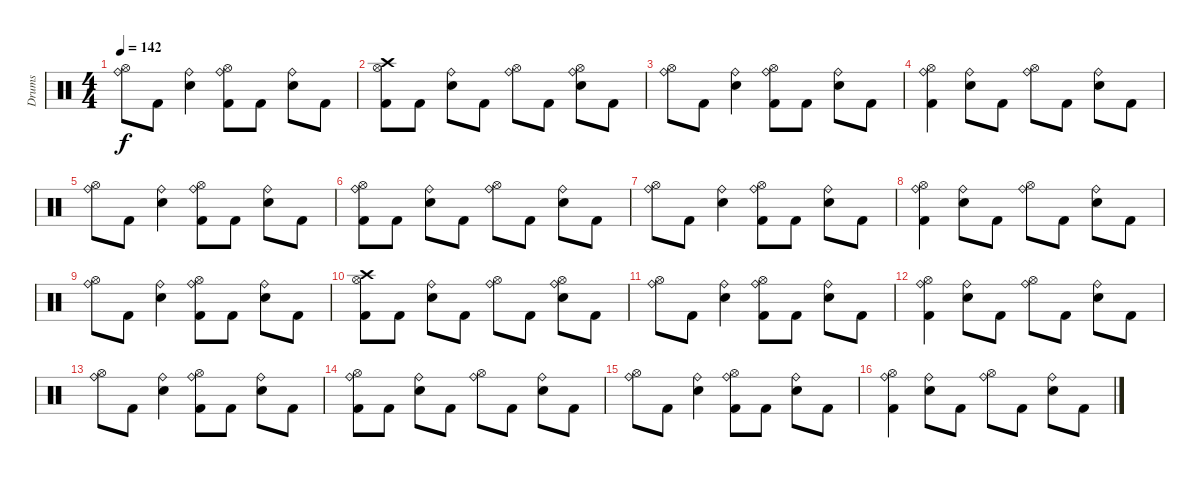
\track ("Drums" "Drums") {instrument percussion}
\staff {score}
\articulation defaults
\ts (4 4)
\tempo 142
\clef neutral
\ks c
("Hi-Hat (open)" "Ride (bell)").8{dy f} "Kick (hit) 2".8 ("Snare (hit) 2" "Ride (bell)").4 ("Kick (hit) 2" "Hi-Hat (open)" "Ride (bell)").8 "Kick (hit) 2".8 ("Snare (hit) 2" "Ride (bell)").8 "Kick (hit) 2".8 |
("Kick (hit) 2" "Hi-Hat (open)" "Crash high (hit)").8 "Kick (hit) 2".8 ("Snare (hit) 2" "Ride (bell)").8 "Kick (hit) 2".8 ("Hi-Hat (open)" "Ride (bell)").8 "Kick (hit) 2".8 ("Snare (hit) 2" "Hi-Hat (open)" "Ride (bell)").8 "Kick (hit) 2".8 |
("Hi-Hat (open)" "Ride (bell)").8 "Kick (hit) 2".8 ("Snare (hit) 2" "Ride (bell)").4 ("Kick (hit) 2" "Hi-Hat (open)" "Ride (bell)").8 "Kick (hit) 2".8 ("Snare (hit) 2" "Ride (bell)").8 "Kick (hit) 2".8 |
("Kick (hit) 2" "Hi-Hat (open)" "Ride (bell)").4 ("Snare (hit) 2" "Ride (bell)").8 "Kick (hit) 2".8 ("Hi-Hat (open)" "Ride (bell)").8 "Kick (hit) 2".8 ("Snare (hit) 2" "Ride (bell)").8 "Kick (hit) 2".8 |
("Hi-Hat (open)" "Ride (bell)").8 "Kick (hit) 2".8 ("Snare (hit) 2" "Ride (bell)").4 ("Kick (hit) 2" "Hi-Hat (open)" "Ride (bell)").8 "Kick (hit) 2".8 ("Snare (hit) 2" "Ride (bell)").8 "Kick (hit) 2".8 |
("Kick (hit) 2" "Hi-Hat (open)" "Ride (bell)").8 "Kick (hit) 2".8 ("Snare (hit) 2" "Ride (bell)").8 "Kick (hit) 2".8 ("Hi-Hat (open)" "Ride (bell)").8 "Kick (hit) 2".8 ("Snare (hit) 2" "Ride (bell)").8 "Kick (hit) 2".8 |
("Hi-Hat (open)" "Ride (bell)").8 "Kick (hit) 2".8 ("Snare (hit) 2" "Ride (bell)").4 ("Kick (hit) 2" "Hi-Hat (open)" "Ride (bell)").8 "Kick (hit) 2".8 ("Snare (hit) 2" "Ride (bell)").8 "Kick (hit) 2".8 |
("Kick (hit) 2" "Hi-Hat (open)" "Ride (bell)").4 ("Snare (hit) 2" "Ride (bell)").8 "Kick (hit) 2".8 ("Hi-Hat (open)" "Ride (bell)").8 "Kick (hit) 2".8 ("Snare (hit) 2" "Ride (bell)").8 "Kick (hit) 2".8 |
("Hi-Hat (open)" "Ride (bell)").8 "Kick (hit) 2".8 ("Snare (hit) 2" "Ride (bell)").4 ("Kick (hit) 2" "Hi-Hat (open)" "Ride (bell)").8 "Kick (hit) 2".8 ("Snare (hit) 2" "Ride (bell)").8 "Kick (hit) 2".8 |
("Kick (hit) 2" "Hi-Hat (open)" "Crash high (hit)").8 "Kick (hit) 2".8 ("Snare (hit) 2" "Ride (bell)").8 "Kick (hit) 2".8 ("Hi-Hat (open)" "Ride (bell)").8 "Kick (hit) 2".8 ("Snare (hit) 2" "Hi-Hat (open)" "Ride (bell)").8 "Kick (hit) 2".8 |
("Hi-Hat (open)" "Ride (bell)").8 "Kick (hit) 2".8 ("Snare (hit) 2" "Ride (bell)").4 ("Kick (hit) 2" "Hi-Hat (open)" "Ride (bell)").8 "Kick (hit) 2".8 ("Snare (hit) 2" "Ride (bell)").8 "Kick (hit) 2".8 |
("Kick (hit) 2" "Hi-Hat (open)" "Ride (bell)").4 ("Snare (hit) 2" "Ride (bell)").8 "Kick (hit) 2".8 ("Hi-Hat (open)" "Ride (bell)").8 "Kick (hit) 2".8 ("Snare (hit) 2" "Ride (bell)").8 "Kick (hit) 2".8 |
("Hi-Hat (open)" "Ride (bell)").8 "Kick (hit) 2".8 ("Snare (hit) 2" "Ride (bell)").4 ("Kick (hit) 2" "Hi-Hat (open)" "Ride (bell)").8 "Kick (hit) 2".8 ("Snare (hit) 2" "Ride (bell)").8 "Kick (hit) 2".8 |
("Kick (hit) 2" "Hi-Hat (open)" "Ride (bell)").8 "Kick (hit) 2".8 ("Snare (hit) 2" "Ride (bell)").8 "Kick (hit) 2".8 ("Hi-Hat (open)" "Ride (bell)").8 "Kick (hit) 2".8 ("Snare (hit) 2" "Ride (bell)").8 "Kick (hit) 2".8 |
("Hi-Hat (open)" "Ride (bell)").8 "Kick (hit) 2".8 ("Snare (hit) 2" "Ride (bell)").4 ("Kick (hit) 2" "Hi-Hat (open)" "Ride (bell)").8 "Kick (hit) 2".8 ("Snare (hit) 2" "Ride (bell)").8 "Kick (hit) 2".8 |
("Kick (hit) 2" "Hi-Hat (open)" "Ride (bell)").4 ("Snare (hit) 2" "Ride (bell)").8 "Kick (hit) 2".8 ("Hi-Hat (open)" "Ride (bell)").8 "Kick (hit) 2".8 ("Snare (hit) 2" "Ride (bell)").8 "Kick (hit) 2".8
